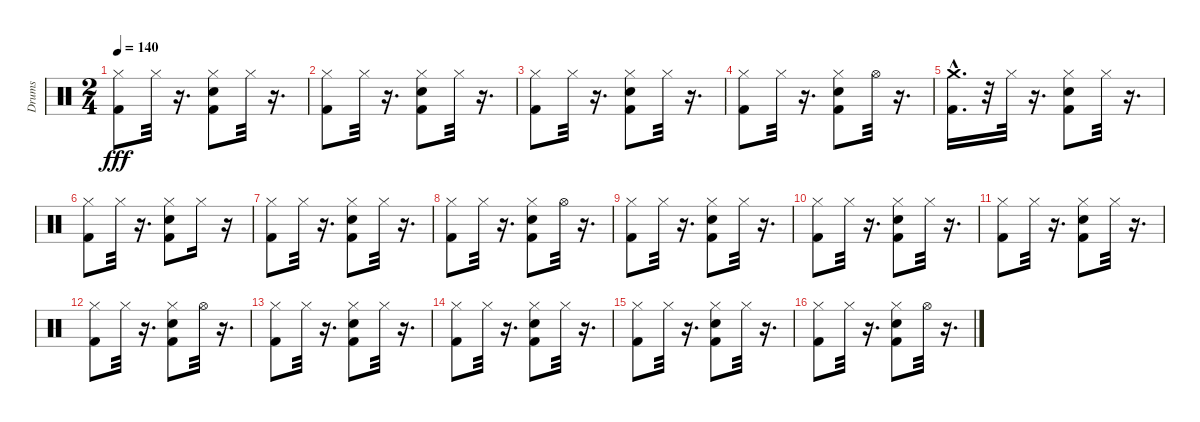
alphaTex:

\track ("Drums" "Drums") {instrument percussion}
\staff {score}
\articulation defaults
\ts (2 4)
\tempo 140
\clef neutral
\ks c
("Kick (hit) 2" "Hi-Hat (closed)").8{dy fff} "Hi-Hat (closed)".32 r.16{d} ("Kick (hit) 2" "Hi-Hat (closed)" "Snare (hit) 2").8 "Hi-Hat (closed)".32 r.16{d} |
("Kick (hit) 2" "Hi-Hat (closed)").8 "Hi-Hat (closed)".32 r.16{d} ("Hi-Hat (closed)" "Snare (hit) 2" "Kick (hit) 2").8 "Hi-Hat (closed)".32 r.16{d} |
("Kick (hit) 2" "Hi-Hat (closed)").8 "Hi-Hat (closed)".32 r.16{d} ("Kick (hit) 2" "Hi-Hat (closed)" "Snare (hit) 2").8 "Hi-Hat (closed)".32 r.16{d} |
("Kick (hit) 2" "Hi-Hat (closed)").8 "Hi-Hat (closed)".32 r.16{d} ("Snare (hit) 2" "Kick (hit) 2" "Hi-Hat (closed)").8 "Hi-Hat (open)".32 r.16{d} |
("Kick (hit) 2"{hac} "Crash medium (hit)").16{d} r.32 "Hi-Hat (closed)".32 r.16{d} ("Kick (hit) 2" "Snare (hit) 2" "Hi-Hat (closed)").8 "Hi-Hat (closed)".32 r.16{d} |
("Kick (hit) 2" "Hi-Hat (closed)").8 "Hi-Hat (closed)".32 r.16{d} ("Hi-Hat (closed)" "Snare (hit) 2" "Kick (hit) 2").8 "Hi-Hat (closed)".16 r.16 |
("Kick (hit) 2" "Hi-Hat (closed)").8 "Hi-Hat (closed)".32 r.16{d} ("Snare (hit) 2" "Kick (hit) 2" "Hi-Hat (closed)").8 "Hi-Hat (closed)".32 r.16{d} |
("Kick (hit) 2" "Hi-Hat (closed)").8 "Hi-Hat (closed)".32 r.16{d} ("Snare (hit) 2" "Hi-Hat (closed)" "Kick (hit) 2").8 "Hi-Hat (open)".32 r.16{d} |
("Kick (hit) 2" "Hi-Hat (closed)").8 "Hi-Hat (closed)".32 r.16{d} ("Snare (hit) 2" "Kick (hit) 2" "Hi-Hat (closed)").8 "Hi-Hat (closed)".32 r.16{d} |
("Kick (hit) 2" "Hi-Hat (closed)").8 "Hi-Hat (closed)".32 r.16{d} ("Snare (hit) 2" "Kick (hit) 2" "Hi-Hat (closed)").8 "Hi-Hat (closed)".32 r.16{d} |
("Kick (hit) 2" "Hi-Hat (closed)").8 "Hi-Hat (closed)".32 r.16{d} ("Kick (hit) 2" "Hi-Hat (closed)" "Snare (hit) 2").8 "Hi-Hat (closed)".32 r.16{d} |
("Kick (hit) 2" "Hi-Hat (closed)").8 "Hi-Hat (closed)".32 r.16{d} ("Snare (hit) 2" "Kick (hit) 2" "Hi-Hat (closed)").8 "Hi-Hat (open)".32 r.16{d} |
("Kick (hit) 2" "Hi-Hat (closed)").8 "Hi-Hat (closed)".32 r.16{d} ("Snare (hit) 2" "Kick (hit) 2" "Hi-Hat (closed)").8 "Hi-Hat (closed)".32 r.16{d} |
("Kick (hit) 2" "Hi-Hat (closed)").8 "Hi-Hat (closed)".32 r.16{d} ("Snare (hit) 2" "Kick (hit) 2" "Hi-Hat (closed)").8 "Hi-Hat (closed)".32 r.16{d} |
("Kick (hit) 2" "Hi-Hat (closed)").8 "Hi-Hat (closed)".32 r.16{d} ("Snare (hit) 2" "Kick (hit) 2" "Hi-Hat (closed)").8 "Hi-Hat (closed)".32 r.16{d} |
("Kick (hit) 2" "Hi-Hat (closed)").8 "Hi-Hat (closed)".32 r.16{d} ("Snare (hit) 2" "Kick (hit) 2" "Hi-Hat (closed)").8 "Hi-Hat (open)".32 r.16{d}
